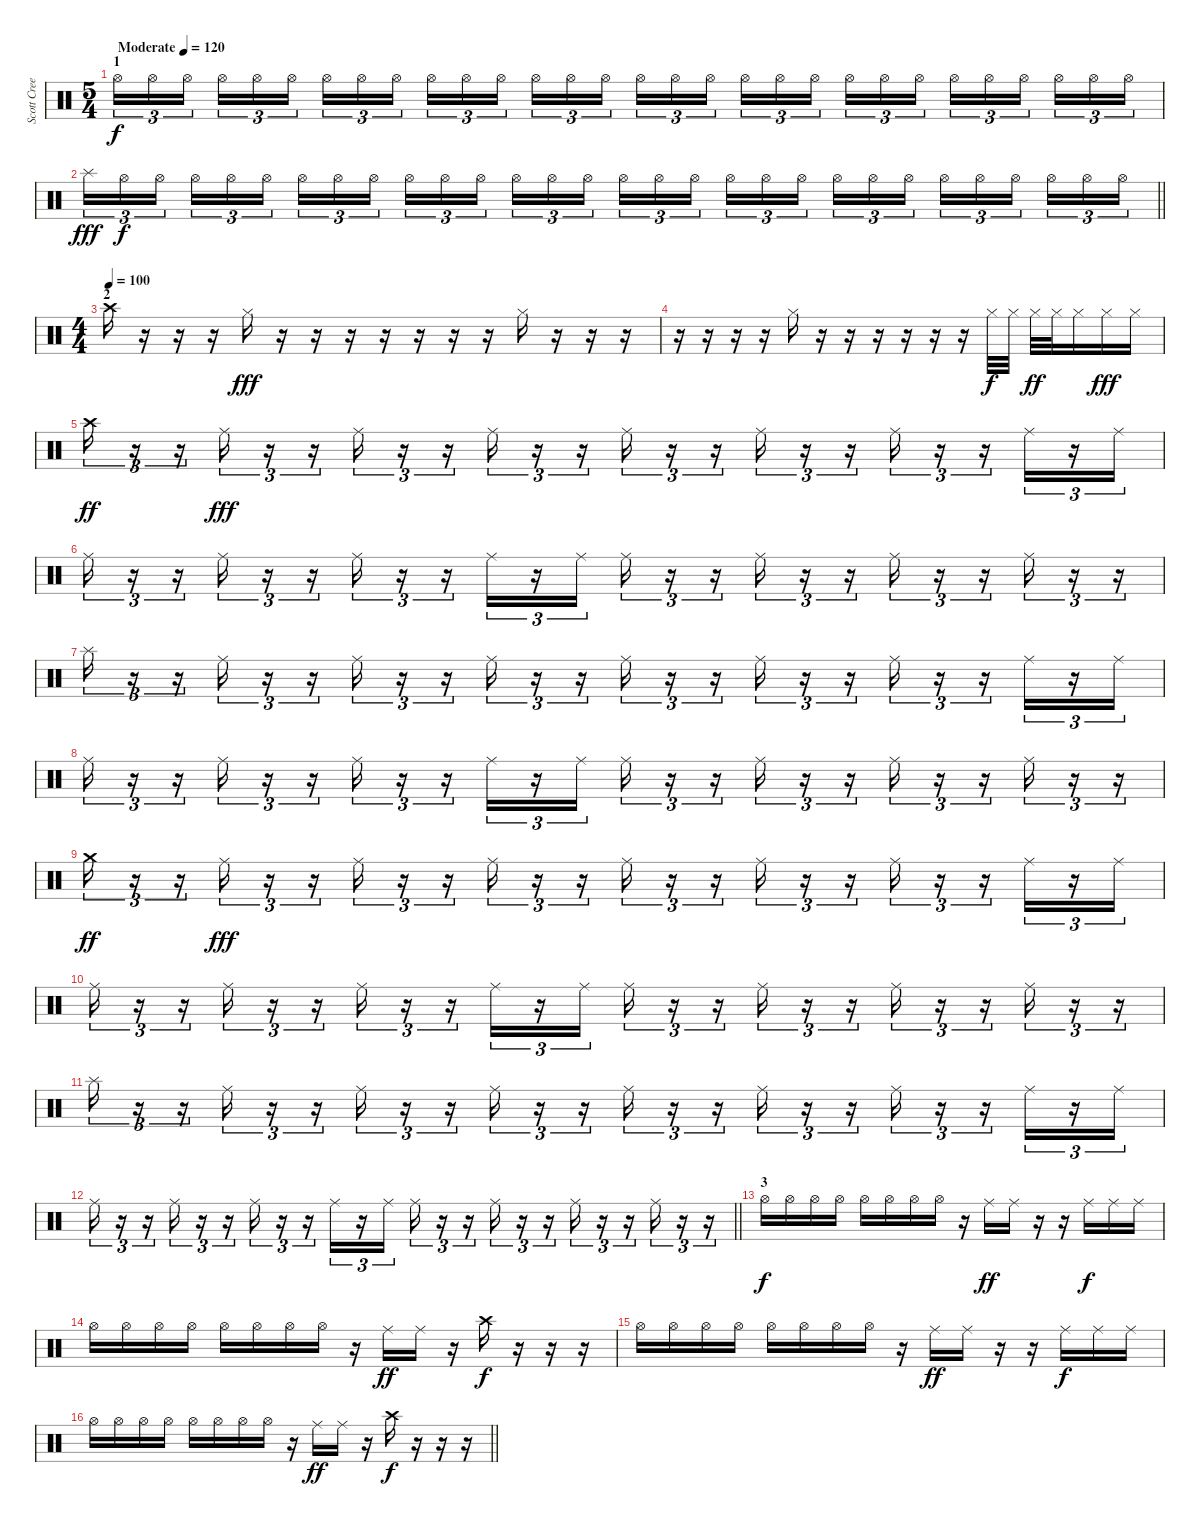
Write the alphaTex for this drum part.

\track ("Scott Creekmore" "Scott Cree") {instrument percussion}
\staff {score}
\articulation defaults
\ts (5 4)
\section ("" "1")
\tempo (120 "Moderate")
\tempo 80
\tempo (120 "Moderate")
\clef neutral
\ks c "Hi-Hat (open)".16{tu (3 2) dy f} "Hi-Hat (open)".16{tu (3 2)} "Hi-Hat (open)".16{tu (3 2) beam splitsecondary} "Hi-Hat (open)".16{tu (3 2)} "Hi-Hat (open)".16{tu (3 2)} "Hi-Hat (open)".16{tu (3 2)} "Hi-Hat (open)".16{tu (3 2)} "Hi-Hat (open)".16{tu (3 2)} "Hi-Hat (open)".16{tu (3 2) beam splitsecondary} "Hi-Hat (open)".16{tu (3 2)} "Hi-Hat (open)".16{tu (3 2)} "Hi-Hat (open)".16{tu (3 2)} "Hi-Hat (open)".16{tu (3 2)} "Hi-Hat (open)".16{tu (3 2)} "Hi-Hat (open)".16{tu (3 2) beam splitsecondary} "Hi-Hat (open)".16{tu (3 2)} "Hi-Hat (open)".16{tu (3 2)} "Hi-Hat (open)".16{tu (3 2)} "Hi-Hat (open)".16{tu (3 2)} "Hi-Hat (open)".16{tu (3 2)} "Hi-Hat (open)".16{tu (3 2) beam splitsecondary} "Hi-Hat (open)".16{tu (3 2)} "Hi-Hat (open)".16{tu (3 2)} "Hi-Hat (open)".16{tu (3 2)} "Hi-Hat (open)".16{tu (3 2)} "Hi-Hat (open)".16{tu (3 2)} "Hi-Hat (open)".16{tu (3 2) beam splitsecondary} "Hi-Hat (open)".16{tu (3 2)} "Hi-Hat (open)".16{tu (3 2)} "Hi-Hat (open)".16{tu (3 2)}
|
\barLineRight lightlight "Splash (hit)".16{tu (3 2) dy fff} "Hi-Hat (open)".16{tu (3 2) dy f} "Hi-Hat (open)".16{tu (3 2) beam splitsecondary} "Hi-Hat (open)".16{tu (3 2)} "Hi-Hat (open)".16{tu (3 2)} "Hi-Hat (open)".16{tu (3 2)} "Hi-Hat (open)".16{tu (3 2)} "Hi-Hat (open)".16{tu (3 2)} "Hi-Hat (open)".16{tu (3 2) beam splitsecondary} "Hi-Hat (open)".16{tu (3 2)} "Hi-Hat (open)".16{tu (3 2)} "Hi-Hat (open)".16{tu (3 2)} "Hi-Hat (open)".16{tu (3 2)} "Hi-Hat (open)".16{tu (3 2)} "Hi-Hat (open)".16{tu (3 2) beam splitsecondary} "Hi-Hat (open)".16{tu (3 2)} "Hi-Hat (open)".16{tu (3 2)} "Hi-Hat (open)".16{tu (3 2)} "Hi-Hat (open)".16{tu (3 2)} "Hi-Hat (open)".16{tu (3 2)} "Hi-Hat (open)".16{tu (3 2) beam splitsecondary} "Hi-Hat (open)".16{tu (3 2)} "Hi-Hat (open)".16{tu (3 2)} "Hi-Hat (open)".16{tu (3 2)} "Hi-Hat (open)".16{tu (3 2)} "Hi-Hat (open)".16{tu (3 2)} "Hi-Hat (open)".16{tu (3 2) beam splitsecondary} "Hi-Hat (open)".16{tu (3 2)} "Hi-Hat (open)".16{tu (3 2)} "Hi-Hat (open)".16{tu (3 2)}
|
\ts (4 4)
\section ("" "2")
\tempo (100)
"Crash high (hit)".16 r.16 r.16 r.16 "Hi-Hat (closed)".16{dy fff} r.16 r.16 r.16 r.16 r.16 r.16 r.16 "Hi-Hat (closed)".16 r.16 r.16 r.16 |
r.16 r.16 r.16 r.16 "Hi-Hat (closed)".16 r.16 r.16 r.16 r.16 r.16 r.16 "Hi-Hat (closed)".32{dy f} "Hi-Hat (closed)".32 "Hi-Hat (closed)".32{dy ff} "Hi-Hat (closed)".32 "Hi-Hat (closed)".16 "Hi-Hat (closed)".16{dy fff} "Hi-Hat (closed)".16 |
"Crash high (hit)".16{tu (3 2) dy ff} r.16{tu (3 2)} r.16{tu (3 2)} "Ride (middle)".16{tu (3 2) dy fff} r.16{tu (3 2)} r.16{tu (3 2)} "Ride (middle)".16{tu (3 2)} r.16{tu (3 2)} r.16{tu (3 2)} "Ride (middle)".16{tu (3 2)} r.16{tu (3 2)} r.16{tu (3 2)} "Ride (middle)".16{tu (3 2)} r.16{tu (3 2)} r.16{tu (3 2)} "Ride (middle)".16{tu (3 2)} r.16{tu (3 2)} r.16{tu (3 2)} "Ride (middle)".16{tu (3 2)} r.16{tu (3 2)} r.16{tu (3 2)} "Ride (middle)".16{tu (3 2)} r.16{tu (3 2)} "Ride (middle)".16{tu (3 2)} |
"Ride (middle)".16{tu (3 2)} r.16{tu (3 2)} r.16{tu (3 2)} "Ride (middle)".16{tu (3 2)} r.16{tu (3 2)} r.16{tu (3 2)} "Ride (middle)".16{tu (3 2)} r.16{tu (3 2)} r.16{tu (3 2)} "Ride (middle)".16{tu (3 2)} r.16{tu (3 2)} "Ride (middle)".16{tu (3 2)} "Ride (middle)".16{tu (3 2)} r.16{tu (3 2)} r.16{tu (3 2)} "Ride (middle)".16{tu (3 2)} r.16{tu (3 2)} r.16{tu (3 2)} "Ride (middle)".16{tu (3 2)} r.16{tu (3 2)} r.16{tu (3 2)} "Ride (middle)".16{tu (3 2)} r.16{tu (3 2)} r.16{tu (3 2)} |
"Splash (hit)".16{tu (3 2)} r.16{tu (3 2)} r.16{tu (3 2)} "Ride (middle)".16{tu (3 2)} r.16{tu (3 2)} r.16{tu (3 2)} "Ride (middle)".16{tu (3 2)} r.16{tu (3 2)} r.16{tu (3 2)} "Ride (middle)".16{tu (3 2)} r.16{tu (3 2)} r.16{tu (3 2)} "Ride (middle)".16{tu (3 2)} r.16{tu (3 2)} r.16{tu (3 2)} "Ride (middle)".16{tu (3 2)} r.16{tu (3 2)} r.16{tu (3 2)} "Ride (middle)".16{tu (3 2)} r.16{tu (3 2)} r.16{tu (3 2)} "Ride (middle)".16{tu (3 2)} r.16{tu (3 2)} "Ride (middle)".16{tu (3 2)} |
"Ride (middle)".16{tu (3 2)} r.16{tu (3 2)} r.16{tu (3 2)} "Ride (middle)".16{tu (3 2)} r.16{tu (3 2)} r.16{tu (3 2)} "Ride (middle)".16{tu (3 2)} r.16{tu (3 2)} r.16{tu (3 2)} "Ride (middle)".16{tu (3 2)} r.16{tu (3 2)} "Ride (middle)".16{tu (3 2)} "Ride (middle)".16{tu (3 2)} r.16{tu (3 2)} r.16{tu (3 2)} "Ride (middle)".16{tu (3 2)} r.16{tu (3 2)} r.16{tu (3 2)} "Ride (middle)".16{tu (3 2)} r.16{tu (3 2)} r.16{tu (3 2)} "Ride (middle)".16{tu (3 2)} r.16{tu (3 2)} r.16{tu (3 2)} |
"Crash medium (hit)".16{tu (3 2) dy ff} r.16{tu (3 2)} r.16{tu (3 2)} "Ride (middle)".16{tu (3 2) dy fff} r.16{tu (3 2)} r.16{tu (3 2)} "Ride (middle)".16{tu (3 2)} r.16{tu (3 2)} r.16{tu (3 2)} "Ride (middle)".16{tu (3 2)} r.16{tu (3 2)} r.16{tu (3 2)} "Ride (middle)".16{tu (3 2)} r.16{tu (3 2)} r.16{tu (3 2)} "Ride (middle)".16{tu (3 2)} r.16{tu (3 2)} r.16{tu (3 2)} "Ride (middle)".16{tu (3 2)} r.16{tu (3 2)} r.16{tu (3 2)} "Ride (middle)".16{tu (3 2)} r.16{tu (3 2)} "Ride (middle)".16{tu (3 2)} |
"Ride (middle)".16{tu (3 2)} r.16{tu (3 2)} r.16{tu (3 2)} "Ride (middle)".16{tu (3 2)} r.16{tu (3 2)} r.16{tu (3 2)} "Ride (middle)".16{tu (3 2)} r.16{tu (3 2)} r.16{tu (3 2)} "Ride (middle)".16{tu (3 2)} r.16{tu (3 2)} "Ride (middle)".16{tu (3 2)} "Ride (middle)".16{tu (3 2)} r.16{tu (3 2)} r.16{tu (3 2)} "Ride (middle)".16{tu (3 2)} r.16{tu (3 2)} r.16{tu (3 2)} "Ride (middle)".16{tu (3 2)} r.16{tu (3 2)} r.16{tu (3 2)} "Ride (middle)".16{tu (3 2)} r.16{tu (3 2)} r.16{tu (3 2)} |
"Splash (hit)".16{tu (3 2)} r.16{tu (3 2)} r.16{tu (3 2)} "Ride (middle)".16{tu (3 2)} r.16{tu (3 2)} r.16{tu (3 2)} "Ride (middle)".16{tu (3 2)} r.16{tu (3 2)} r.16{tu (3 2)} "Ride (middle)".16{tu (3 2)} r.16{tu (3 2)} r.16{tu (3 2)} "Ride (middle)".16{tu (3 2)} r.16{tu (3 2)} r.16{tu (3 2)} "Ride (middle)".16{tu (3 2)} r.16{tu (3 2)} r.16{tu (3 2)} "Ride (middle)".16{tu (3 2)} r.16{tu (3 2)} r.16{tu (3 2)} "Ride (middle)".16{tu (3 2)} r.16{tu (3 2)} "Ride (middle)".16{tu (3 2)} |
\barLineRight lightlight "Ride (middle)".16{tu (3 2)}
r.16{tu (3 2)} r.16{tu (3 2)} "Ride (middle)".16{tu (3 2)} r.16{tu (3 2)} r.16{tu (3 2)} "Ride (middle)".16{tu (3 2)} r.16{tu (3 2)} r.16{tu (3 2)} "Ride (middle)".16{tu (3 2)} r.16{tu (3 2)} "Ride (middle)".16{tu (3 2)} "Ride (middle)".16{tu (3 2)} r.16{tu (3 2)} r.16{tu (3 2)} "Ride (middle)".16{tu (3 2)} r.16{tu (3 2)} r.16{tu (3 2)} "Ride (middle)".16{tu (3 2)} r.16{tu (3 2)} r.16{tu (3 2)} "Ride (middle)".16{tu (3 2)} r.16{tu (3 2)} r.16{tu (3 2)} |
\section ("" "3")
"Hi-Hat (open)".16{dy f} "Hi-Hat (open)".16 "Hi-Hat (open)".16 "Hi-Hat (open)".16 "Hi-Hat (open)".16 "Hi-Hat (open)".16 "Hi-Hat (open)".16 "Hi-Hat (open)".16 r.16 "Ride (middle)".16{dy ff} "Ride (middle)".16 r.16 r.16 "Ride (middle)".16{dy f} "Ride (middle)".16 "Ride (middle)".16 |
"Hi-Hat (open)".16 "Hi-Hat (open)".16 "Hi-Hat (open)".16 "Hi-Hat (open)".16 "Hi-Hat (open)".16 "Hi-Hat (open)".16 "Hi-Hat (open)".16 "Hi-Hat (open)".16 r.16 "Ride (middle)".16{dy ff} "Ride (middle)".16 r.16 "Crash high (hit)".16{dy f} r.16 r.16 r.16 |
"Hi-Hat (open)".16 "Hi-Hat (open)".16 "Hi-Hat (open)".16 "Hi-Hat (open)".16 "Hi-Hat (open)".16 "Hi-Hat (open)".16 "Hi-Hat (open)".16 "Hi-Hat (open)".16 r.16 "Ride (middle)".16{dy ff} "Ride (middle)".16 r.16 r.16 "Ride (middle)".16{dy f} "Ride (middle)".16 "Ride (middle)".16 |
\barLineRight lightlight "Hi-Hat (open)".16 "Hi-Hat (open)".16 "Hi-Hat (open)".16 "Hi-Hat (open)".16 "Hi-Hat (open)".16 "Hi-Hat (open)".16 "Hi-Hat (open)".16 "Hi-Hat (open)".16
r.16 "Ride (middle)".16{dy ff} "Ride (middle)".16 r.16 "Crash high (hit)".16{dy f} r.16 r.16 r.16
